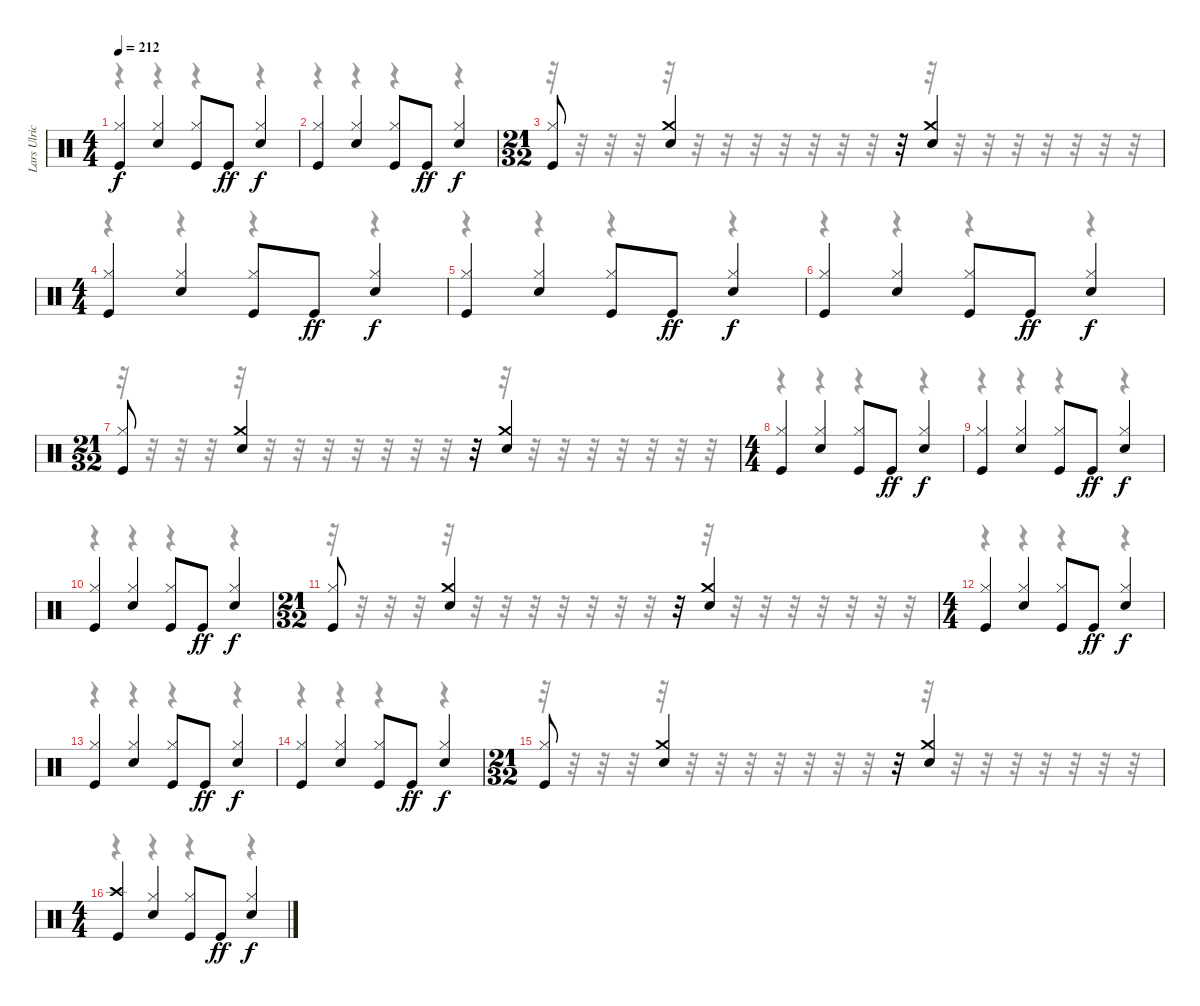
\track ("Lars Ulrich" "Lars Ulric") {instrument percussion}
\staff {score}
\articulation defaults
\voice
\ts (4 4)
\tempo 212
\clef neutral
\ks c
("Hi-Hat (closed)" "Kick (hit)").4{dy f} ("Hi-Hat (closed)" "Snare (hit) 2").4 ("Hi-Hat (closed)" "Kick (hit)").8 "Kick (hit)".8{dy ff} ("Hi-Hat (closed)" "Snare (hit) 2").4{dy f} |
("Hi-Hat (closed)" "Kick (hit)").4 ("Hi-Hat (closed)" "Snare (hit) 2").4 ("Hi-Hat (closed)" "Kick (hit)").8 "Kick (hit)".8{dy ff} ("Hi-Hat (closed)" "Snare (hit) 2").4{dy f} |
\ts (21 32)
("Hi-Hat (closed)" "Kick (hit)").8 ("Crash medium (hit)" "Snare (hit) 2").4 r.32 ("Crash medium (hit)" "Snare (hit) 2").4 |
\ts (4 4)
("Hi-Hat (closed)" "Kick (hit)").4 ("Hi-Hat (closed)" "Snare (hit) 2").4 ("Hi-Hat (closed)" "Kick (hit)").8 "Kick (hit)".8{dy ff} ("Hi-Hat (closed)" "Snare (hit) 2").4{dy f} |
("Hi-Hat (closed)" "Kick (hit)").4 ("Hi-Hat (closed)" "Snare (hit) 2").4 ("Hi-Hat (closed)" "Kick (hit)").8 "Kick (hit)".8{dy ff} ("Hi-Hat (closed)" "Snare (hit) 2").4{dy f} |
("Hi-Hat (closed)" "Kick (hit)").4 ("Hi-Hat (closed)" "Snare (hit) 2").4 ("Hi-Hat (closed)" "Kick (hit)").8 "Kick (hit)".8{dy ff} ("Hi-Hat (closed)" "Snare (hit) 2").4{dy f} |
\ts (21 32)
("Hi-Hat (closed)" "Kick (hit)").8 ("Crash medium (hit)" "Snare (hit) 2").4 r.32 ("Crash medium (hit)" "Snare (hit) 2").4 |
\ts (4 4)
("Hi-Hat (closed)" "Kick (hit)").4 ("Hi-Hat (closed)" "Snare (hit) 2").4 ("Hi-Hat (closed)" "Kick (hit)").8 "Kick (hit)".8{dy ff} ("Hi-Hat (closed)" "Snare (hit) 2").4{dy f} |
("Hi-Hat (closed)" "Kick (hit)").4 ("Hi-Hat (closed)" "Snare (hit) 2").4 ("Hi-Hat (closed)" "Kick (hit)").8 "Kick (hit)".8{dy ff} ("Hi-Hat (closed)" "Snare (hit) 2").4{dy f} |
("Hi-Hat (closed)" "Kick (hit)").4 ("Hi-Hat (closed)" "Snare (hit) 2").4 ("Hi-Hat (closed)" "Kick (hit)").8 "Kick (hit)".8{dy ff} ("Hi-Hat (closed)" "Snare (hit) 2").4{dy f} |
\ts (21 32)
("Hi-Hat (closed)" "Kick (hit)").8 ("Crash medium (hit)" "Snare (hit) 2").4 r.32 ("Crash medium (hit)" "Snare (hit) 2").4 |
\ts (4 4)
("Hi-Hat (closed)" "Kick (hit)").4 ("Hi-Hat (closed)" "Snare (hit) 2").4 ("Hi-Hat (closed)" "Kick (hit)").8 "Kick (hit)".8{dy ff} ("Hi-Hat (closed)" "Snare (hit) 2").4{dy f} |
("Hi-Hat (closed)" "Kick (hit)").4 ("Hi-Hat (closed)" "Snare (hit) 2").4 ("Hi-Hat (closed)" "Kick (hit)").8 "Kick (hit)".8{dy ff} ("Hi-Hat (closed)" "Snare (hit) 2").4{dy f} |
("Hi-Hat (closed)" "Kick (hit)").4 ("Hi-Hat (closed)" "Snare (hit) 2").4 ("Hi-Hat (closed)" "Kick (hit)").8 "Kick (hit)".8{dy ff} ("Hi-Hat (closed)" "Snare (hit) 2").4{dy f} |
\ts (21 32)
("Hi-Hat (closed)" "Kick (hit)").8 ("Crash medium (hit)" "Snare (hit) 2").4 r.32 ("Crash medium (hit)" "Snare (hit) 2").4 |
\ts (4 4)
("Crash high (hit)" "Kick (hit)").4 ("Hi-Hat (closed)" "Snare (hit) 2").4 ("Hi-Hat (closed)" "Kick (hit)").8 "Kick (hit)".8{dy ff} ("Hi-Hat (closed)" "Snare (hit) 2").4{dy f}
\voice
\clef neutral
\ottava regular
\simile none
\ks c
r.4{dy f} r.4 r.4 r.4 |
r.4 r.4 r.4 r.4 |
r.32 r.32 r.32 r.32 r.32 r.32 r.32 r.32 r.32 r.32 r.32 r.32 r.32 r.32 r.32 r.32 r.32 r.32 r.32 r.32 r.32 |
r.4 r.4 r.4 r.4 |
r.4 r.4 r.4 r.4 |
r.4 r.4 r.4 r.4 |
r.32 r.32 r.32 r.32 r.32 r.32 r.32 r.32 r.32 r.32 r.32 r.32 r.32 r.32 r.32 r.32 r.32 r.32 r.32 r.32 r.32 |
r.4 r.4 r.4 r.4 |
r.4 r.4 r.4 r.4 |
r.4 r.4 r.4 r.4 |
r.32 r.32 r.32 r.32 r.32 r.32 r.32 r.32 r.32 r.32 r.32 r.32 r.32 r.32 r.32 r.32 r.32 r.32 r.32 r.32 r.32 |
r.4 r.4 r.4 r.4 |
r.4 r.4 r.4 r.4 |
r.4 r.4 r.4 r.4 |
r.32 r.32 r.32 r.32 r.32 r.32 r.32 r.32 r.32 r.32 r.32 r.32 r.32 r.32 r.32 r.32 r.32 r.32 r.32 r.32 r.32 |
r.4 r.4 r.4 r.4
